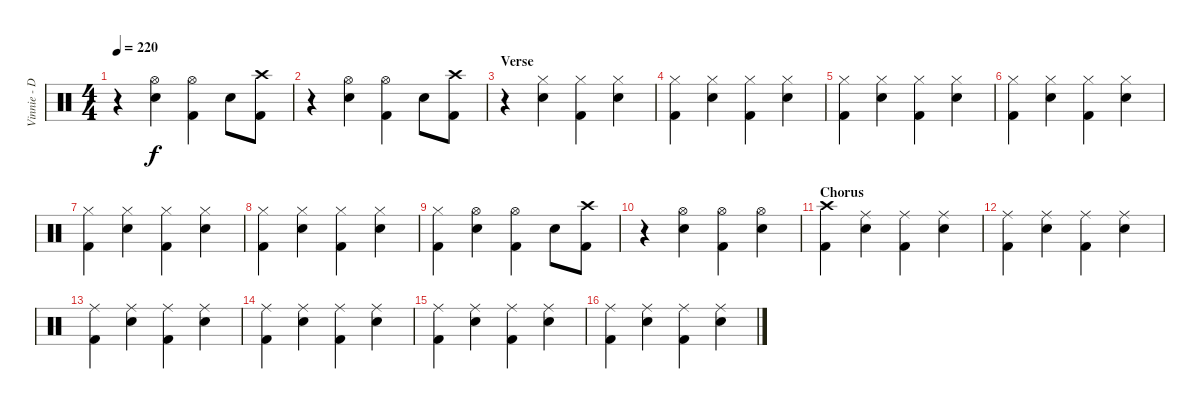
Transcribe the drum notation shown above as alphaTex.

\track ("Vinnie - Drums" "Vinnie - D") {instrument percussion}
\staff {score}
\articulation defaults
\ts (4 4)
\tempo 220
\clef neutral
\ks c
r.4{dy f} ("Hi-Hat (open)" "Electric Snare (hit)").4 ("Hi-Hat (open)" "Kick (hit) 2").4 "Electric Snare (hit)".8 ("Crash high (hit)" "Kick (hit) 2").8 |
r.4 ("Hi-Hat (open)" "Electric Snare (hit)").4 ("Hi-Hat (open)" "Kick (hit) 2").4 "Electric Snare (hit)".8 ("Crash high (hit)" "Kick (hit) 2").8 |
\section ("" "Verse")
r.4 ("Hi-Hat (closed)" "Electric Snare (hit)").4 ("Hi-Hat (closed)" "Kick (hit) 2").4 ("Hi-Hat (closed)" "Electric Snare (hit)").4 |
("Hi-Hat (closed)" "Kick (hit) 2").4 ("Hi-Hat (closed)" "Electric Snare (hit)").4 ("Hi-Hat (closed)" "Kick (hit) 2").4 ("Hi-Hat (closed)" "Electric Snare (hit)").4 |
("Hi-Hat (closed)" "Kick (hit) 2").4 ("Hi-Hat (closed)" "Electric Snare (hit)").4 ("Hi-Hat (closed)" "Kick (hit) 2").4 ("Hi-Hat (closed)" "Electric Snare (hit)").4 |
("Hi-Hat (closed)" "Kick (hit) 2").4 ("Hi-Hat (closed)" "Electric Snare (hit)").4 ("Hi-Hat (closed)" "Kick (hit) 2").4 ("Hi-Hat (closed)" "Electric Snare (hit)").4 |
("Hi-Hat (closed)" "Kick (hit) 2").4 ("Hi-Hat (closed)" "Electric Snare (hit)").4 ("Hi-Hat (closed)" "Kick (hit) 2").4 ("Hi-Hat (closed)" "Electric Snare (hit)").4 |
("Hi-Hat (closed)" "Kick (hit) 2").4 ("Hi-Hat (closed)" "Electric Snare (hit)").4 ("Hi-Hat (closed)" "Kick (hit) 2").4 ("Hi-Hat (closed)" "Electric Snare (hit)").4 |
("Hi-Hat (closed)" "Kick (hit) 2").4 ("Hi-Hat (open)" "Electric Snare (hit)").4 ("Hi-Hat (open)" "Kick (hit) 2").4 "Electric Snare (hit)".8 ("Crash high (hit)" "Kick (hit) 2").8 |
r.4 ("Hi-Hat (open)" "Electric Snare (hit)").4 ("Hi-Hat (open)" "Kick (hit) 2").4 ("Hi-Hat (open)" "Electric Snare (hit)").4 |
\section ("" "Chorus")
("Crash high (hit)" "Kick (hit) 2").4 ("Ride (middle)" "Electric Snare (hit)").4 ("Ride (middle)" "Kick (hit) 2").4 ("Ride (middle)" "Electric Snare (hit)").4 |
("Ride (middle)" "Kick (hit) 2").4 ("Ride (middle)" "Electric Snare (hit)").4 ("Ride (middle)" "Kick (hit) 2").4 ("Ride (middle)" "Electric Snare (hit)").4 |
("Ride (middle)" "Kick (hit) 2").4 ("Ride (middle)" "Electric Snare (hit)").4 ("Ride (middle)" "Kick (hit) 2").4 ("Ride (middle)" "Electric Snare (hit)").4 |
("Ride (middle)" "Kick (hit) 2").4 ("Ride (middle)" "Electric Snare (hit)").4 ("Ride (middle)" "Kick (hit) 2").4 ("Ride (middle)" "Electric Snare (hit)").4 |
("Ride (middle)" "Kick (hit) 2").4 ("Ride (middle)" "Electric Snare (hit)").4 ("Ride (middle)" "Kick (hit) 2").4 ("Ride (middle)" "Electric Snare (hit)").4 |
("Ride (middle)" "Kick (hit) 2").4 ("Ride (middle)" "Electric Snare (hit)").4 ("Ride (middle)" "Kick (hit) 2").4 ("Ride (middle)" "Electric Snare (hit)").4
